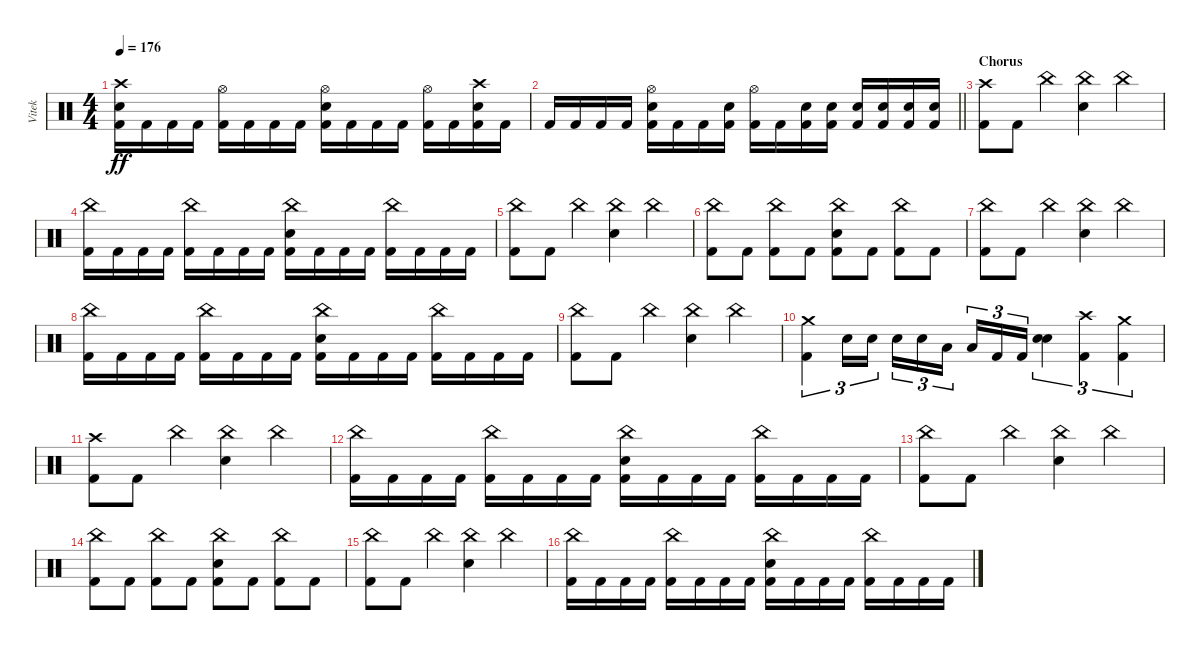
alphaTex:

\track ("Vitek" "Vitek") {instrument percussion}
\staff {score}
\articulation defaults
\ts (4 4)
\tempo 176
\clef neutral
\ks c
("Crash high (hit)" "Electric Snare (hit)" "Kick (hit) 2").16{dy ff} "Kick (hit) 2".16 "Kick (hit) 2".16 "Kick (hit) 2".16 ("Hi-Hat (open)" "Kick (hit) 2").16 "Kick (hit) 2".16 "Kick (hit) 2".16 "Kick (hit) 2".16 ("Hi-Hat (open)" "Electric Snare (hit)" "Kick (hit) 2").16 "Kick (hit) 2".16 "Kick (hit) 2".16 "Kick (hit) 2".16 ("Hi-Hat (open)" "Kick (hit) 2").16 "Kick (hit) 2".16 ("Crash high (hit)" "Electric Snare (hit)" "Kick (hit) 2").16 "Kick (hit) 2".16 |
\barLineRight lightlight "Kick (hit) 2".16 "Kick (hit) 2".16 "Kick (hit) 2".16 "Kick (hit) 2".16
("Hi-Hat (open)" "Electric Snare (hit)" "Kick (hit) 2").16 "Kick (hit) 2".16 "Kick (hit) 2".16 ("Electric Snare (hit)" "Kick (hit) 2").16 ("Hi-Hat (open)" "Kick (hit) 2").16 "Kick (hit) 2".16 ("Electric Snare (hit)" "Kick (hit) 2").16 ("Electric Snare (hit)" "Kick (hit) 2").16 ("Electric Snare (hit)" "Kick (hit) 2").16 ("Electric Snare (hit)" "Kick (hit) 2").16 ("Electric Snare (hit)" "Kick (hit) 2").16 ("Electric Snare (hit)" "Kick (hit) 2").16 |
\section ("" "Chorus")
("Crash high (hit)" "Kick (hit) 2").8 "Kick (hit) 2".8 "China (hit)".4 ("China (hit)" "Electric Snare (hit)").4 "China (hit)".4 |
("China (hit)" "Kick (hit) 2").16 "Kick (hit) 2".16 "Kick (hit) 2".16 "Kick (hit) 2".16 ("China (hit)" "Kick (hit) 2").16 "Kick (hit) 2".16 "Kick (hit) 2".16 "Kick (hit) 2".16 ("China (hit)" "Electric Snare (hit)" "Kick (hit) 2").16 "Kick (hit) 2".16 "Kick (hit) 2".16 "Kick (hit) 2".16 ("China (hit)" "Kick (hit) 2").16 "Kick (hit) 2".16 "Kick (hit) 2".16 "Kick (hit) 2".16 |
("China (hit)" "Kick (hit) 2").8 "Kick (hit) 2".8 "China (hit)".4 ("China (hit)" "Electric Snare (hit)").4 "China (hit)".4 |
("China (hit)" "Kick (hit) 2").8 "Kick (hit) 2".8 ("China (hit)" "Kick (hit) 2").8 "Kick (hit) 2".8 ("China (hit)" "Electric Snare (hit)" "Kick (hit) 2").8 "Kick (hit) 2".8 ("China (hit)" "Kick (hit) 2").8 "Kick (hit) 2".8 |
("China (hit)" "Kick (hit) 2").8 "Kick (hit) 2".8 "China (hit)".4 ("China (hit)" "Electric Snare (hit)").4 "China (hit)".4 |
("China (hit)" "Kick (hit) 2").16 "Kick (hit) 2".16 "Kick (hit) 2".16 "Kick (hit) 2".16 ("China (hit)" "Kick (hit) 2").16 "Kick (hit) 2".16 "Kick (hit) 2".16 "Kick (hit) 2".16 ("China (hit)" "Electric Snare (hit)" "Kick (hit) 2").16 "Kick (hit) 2".16 "Kick (hit) 2".16 "Kick (hit) 2".16 ("China (hit)" "Kick (hit) 2").16 "Kick (hit) 2".16 "Kick (hit) 2".16 "Kick (hit) 2".16 |
("China (hit)" "Kick (hit) 2").8 "Kick (hit) 2".8 "China (hit)".4 ("China (hit)" "Electric Snare (hit)").4 "China (hit)".4 |
("Crash medium (hit)" "Kick (hit) 2").4{tu (3 2)} "Electric Snare (hit)".16{tu (3 2)} "Electric Snare (hit)".16{tu (3 2)} "Electric Snare (hit)".16{tu (3 2)} "Electric Snare (hit)".16{tu (3 2)} "Low Tom (hit)".16{tu (3 2) beam splitsecondary} "Low Tom (hit)".16{tu (3 2)} "Kick (hit) 2".16{tu (3 2)} "Kick (hit) 2".16{tu (3 2)} ("Electric Snare (hit)" "Electric Snare (hit)").4{tu (3 2)} ("Crash high (hit)" "Kick (hit) 2").4{tu (3 2)} ("Crash medium (hit)" "Kick (hit) 2").4{tu (3 2)} |
("Crash high (hit)" "Kick (hit) 2").8 "Kick (hit) 2".8 "China (hit)".4 ("China (hit)" "Electric Snare (hit)").4 "China (hit)".4 |
("China (hit)" "Kick (hit) 2").16 "Kick (hit) 2".16 "Kick (hit) 2".16 "Kick (hit) 2".16 ("China (hit)" "Kick (hit) 2").16 "Kick (hit) 2".16 "Kick (hit) 2".16 "Kick (hit) 2".16 ("China (hit)" "Electric Snare (hit)" "Kick (hit) 2").16 "Kick (hit) 2".16 "Kick (hit) 2".16 "Kick (hit) 2".16 ("China (hit)" "Kick (hit) 2").16 "Kick (hit) 2".16 "Kick (hit) 2".16 "Kick (hit) 2".16 |
("China (hit)" "Kick (hit) 2").8 "Kick (hit) 2".8 "China (hit)".4 ("China (hit)" "Electric Snare (hit)").4 "China (hit)".4 |
("China (hit)" "Kick (hit) 2").8 "Kick (hit) 2".8 ("China (hit)" "Kick (hit) 2").8 "Kick (hit) 2".8 ("China (hit)" "Electric Snare (hit)" "Kick (hit) 2").8 "Kick (hit) 2".8 ("China (hit)" "Kick (hit) 2").8 "Kick (hit) 2".8 |
("China (hit)" "Kick (hit) 2").8 "Kick (hit) 2".8 "China (hit)".4 ("China (hit)" "Electric Snare (hit)").4 "China (hit)".4 |
("China (hit)" "Kick (hit) 2").16 "Kick (hit) 2".16 "Kick (hit) 2".16 "Kick (hit) 2".16 ("China (hit)" "Kick (hit) 2").16 "Kick (hit) 2".16 "Kick (hit) 2".16 "Kick (hit) 2".16 ("China (hit)" "Electric Snare (hit)" "Kick (hit) 2").16 "Kick (hit) 2".16 "Kick (hit) 2".16 "Kick (hit) 2".16 ("China (hit)" "Kick (hit) 2").16 "Kick (hit) 2".16 "Kick (hit) 2".16 "Kick (hit) 2".16
